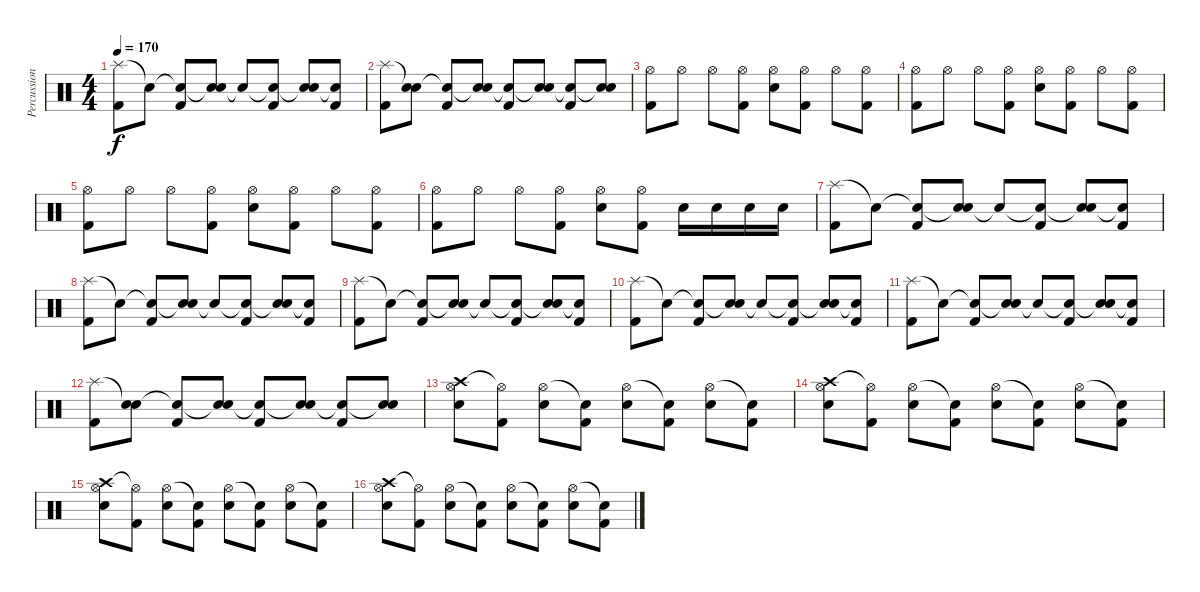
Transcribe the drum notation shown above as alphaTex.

\track ("Percussion" "Percussion") {instrument percussion}
\staff {score}
\articulation defaults
\ts (4 4)
\tempo 170
\clef neutral
\ks c
("Splash (hit)" "Kick (hit) 2").8{dy f} "Snare (hit)"{t}.8 ("Snare (hit)"{t} "Kick (hit) 2").8 ("Snare (hit)"{t} "Electric Snare (hit)").8 "Snare (hit)"{t}.8 ("Snare (hit)"{t} "Kick (hit) 2").8 ("Snare (hit)"{t} "Electric Snare (hit)").8 ("Snare (hit)"{t} "Kick (hit) 2").8 |
("Splash (hit)" "Kick (hit) 2").8 ("Snare (hit)"{t} "Electric Snare (hit)").8 ("Snare (hit)"{t} "Kick (hit) 2").8 ("Snare (hit)"{t} "Electric Snare (hit)").8 ("Snare (hit)"{t} "Kick (hit) 2").8 ("Snare (hit)"{t} "Electric Snare (hit)").8 ("Snare (hit)"{t} "Kick (hit) 2").8 ("Snare (hit)"{t} "Electric Snare (hit)").8 |
("Hi-Hat (open)" "Kick (hit) 2").8 "Hi-Hat (open)".8 "Hi-Hat (open)".8 ("Hi-Hat (open)" "Kick (hit) 2").8 ("Hi-Hat (open)" "Electric Snare (hit)").8 ("Hi-Hat (open)" "Kick (hit) 2").8 "Hi-Hat (open)".8 ("Hi-Hat (open)" "Kick (hit) 2").8 |
("Hi-Hat (open)" "Kick (hit) 2").8 "Hi-Hat (open)".8 "Hi-Hat (open)".8 ("Hi-Hat (open)" "Kick (hit) 2").8 ("Hi-Hat (open)" "Electric Snare (hit)").8 ("Hi-Hat (open)" "Kick (hit) 2").8 "Hi-Hat (open)".8 ("Hi-Hat (open)" "Kick (hit) 2").8 |
("Hi-Hat (open)" "Kick (hit) 2").8 "Hi-Hat (open)".8 "Hi-Hat (open)".8 ("Hi-Hat (open)" "Kick (hit) 2").8 ("Hi-Hat (open)" "Electric Snare (hit)").8 ("Hi-Hat (open)" "Kick (hit) 2").8 "Hi-Hat (open)".8 ("Hi-Hat (open)" "Kick (hit) 2").8 |
("Hi-Hat (open)" "Kick (hit) 2").8 "Hi-Hat (open)".8 "Hi-Hat (open)".8 ("Hi-Hat (open)" "Kick (hit) 2").8 ("Hi-Hat (open)" "Electric Snare (hit)").8 ("Hi-Hat (open)" "Kick (hit) 2").8 "Electric Snare (hit)".16 "Electric Snare (hit)".16 "Electric Snare (hit)".16 "Electric Snare (hit)".16 |
("Splash (hit)" "Kick (hit) 2").8 "Snare (hit)"{t}.8 ("Snare (hit)"{t} "Kick (hit) 2").8 ("Snare (hit)"{t} "Electric Snare (hit)").8 "Snare (hit)"{t}.8 ("Snare (hit)"{t} "Kick (hit) 2").8 ("Snare (hit)"{t} "Electric Snare (hit)").8 ("Snare (hit)"{t} "Kick (hit) 2").8 |
("Splash (hit)" "Kick (hit) 2").8 "Snare (hit)"{t}.8 ("Snare (hit)"{t} "Kick (hit) 2").8 ("Snare (hit)"{t} "Electric Snare (hit)").8 "Snare (hit)"{t}.8 ("Snare (hit)"{t} "Kick (hit) 2").8 ("Snare (hit)"{t} "Electric Snare (hit)").8 ("Snare (hit)"{t} "Kick (hit) 2").8 |
("Splash (hit)" "Kick (hit) 2").8 "Snare (hit)"{t}.8 ("Snare (hit)"{t} "Kick (hit) 2").8 ("Snare (hit)"{t} "Electric Snare (hit)").8 "Snare (hit)"{t}.8 ("Snare (hit)"{t} "Kick (hit) 2").8 ("Snare (hit)"{t} "Electric Snare (hit)").8 ("Snare (hit)"{t} "Kick (hit) 2").8 |
("Splash (hit)" "Kick (hit) 2").8 "Snare (hit)"{t}.8 ("Snare (hit)"{t} "Kick (hit) 2").8 ("Snare (hit)"{t} "Electric Snare (hit)").8 "Snare (hit)"{t}.8 ("Snare (hit)"{t} "Kick (hit) 2").8 ("Snare (hit)"{t} "Electric Snare (hit)").8 ("Snare (hit)"{t} "Kick (hit) 2").8 |
("Splash (hit)" "Kick (hit) 2").8 "Snare (hit)"{t}.8 ("Snare (hit)"{t} "Kick (hit) 2").8 ("Snare (hit)"{t} "Electric Snare (hit)").8 "Snare (hit)"{t}.8 ("Snare (hit)"{t} "Kick (hit) 2").8 ("Snare (hit)"{t} "Electric Snare (hit)").8 ("Snare (hit)"{t} "Kick (hit) 2").8 |
("Splash (hit)" "Kick (hit) 2").8 ("Snare (hit)"{t} "Electric Snare (hit)").8 ("Snare (hit)"{t} "Kick (hit) 2").8 ("Snare (hit)"{t} "Electric Snare (hit)").8 ("Snare (hit)"{t} "Kick (hit) 2").8 ("Snare (hit)"{t} "Electric Snare (hit)").8 ("Snare (hit)"{t} "Kick (hit) 2").8 ("Snare (hit)"{t} "Electric Snare (hit)").8 |
("Crash high (hit)" "Hi-Hat (open)" "Electric Snare (hit)").8 ("Hi-Hat (open)"{t} "Kick (hit) 2").8 ("Hi-Hat (open)" "Electric Snare (hit)").8 ("Snare (hit)"{t} "Kick (hit) 2").8 ("Hi-Hat (open)" "Electric Snare (hit)").8 ("Snare (hit)"{t} "Kick (hit) 2").8 ("Hi-Hat (open)" "Electric Snare (hit)").8 ("Snare (hit)"{t} "Kick (hit) 2").8 |
("Crash high (hit)" "Hi-Hat (open)" "Electric Snare (hit)").8 ("Hi-Hat (open)"{t} "Kick (hit) 2").8 ("Hi-Hat (open)" "Electric Snare (hit)").8 ("Snare (hit)"{t} "Kick (hit) 2").8 ("Hi-Hat (open)" "Electric Snare (hit)").8 ("Snare (hit)"{t} "Kick (hit) 2").8 ("Hi-Hat (open)" "Electric Snare (hit)").8 ("Snare (hit)"{t} "Kick (hit) 2").8 |
("Crash high (hit)" "Hi-Hat (open)" "Electric Snare (hit)").8 ("Hi-Hat (open)"{t} "Kick (hit) 2").8 ("Hi-Hat (open)" "Electric Snare (hit)").8 ("Snare (hit)"{t} "Kick (hit) 2").8 ("Hi-Hat (open)" "Electric Snare (hit)").8 ("Snare (hit)"{t} "Kick (hit) 2").8 ("Hi-Hat (open)" "Electric Snare (hit)").8 ("Snare (hit)"{t} "Kick (hit) 2").8 |
("Crash high (hit)" "Hi-Hat (open)" "Electric Snare (hit)").8 ("Hi-Hat (open)"{t} "Kick (hit) 2").8 ("Hi-Hat (open)" "Electric Snare (hit)").8 ("Snare (hit)"{t} "Kick (hit) 2").8 ("Hi-Hat (open)" "Electric Snare (hit)").8 ("Snare (hit)"{t} "Kick (hit) 2").8 ("Hi-Hat (open)" "Electric Snare (hit)").8 ("Snare (hit)"{t} "Kick (hit) 2").8
